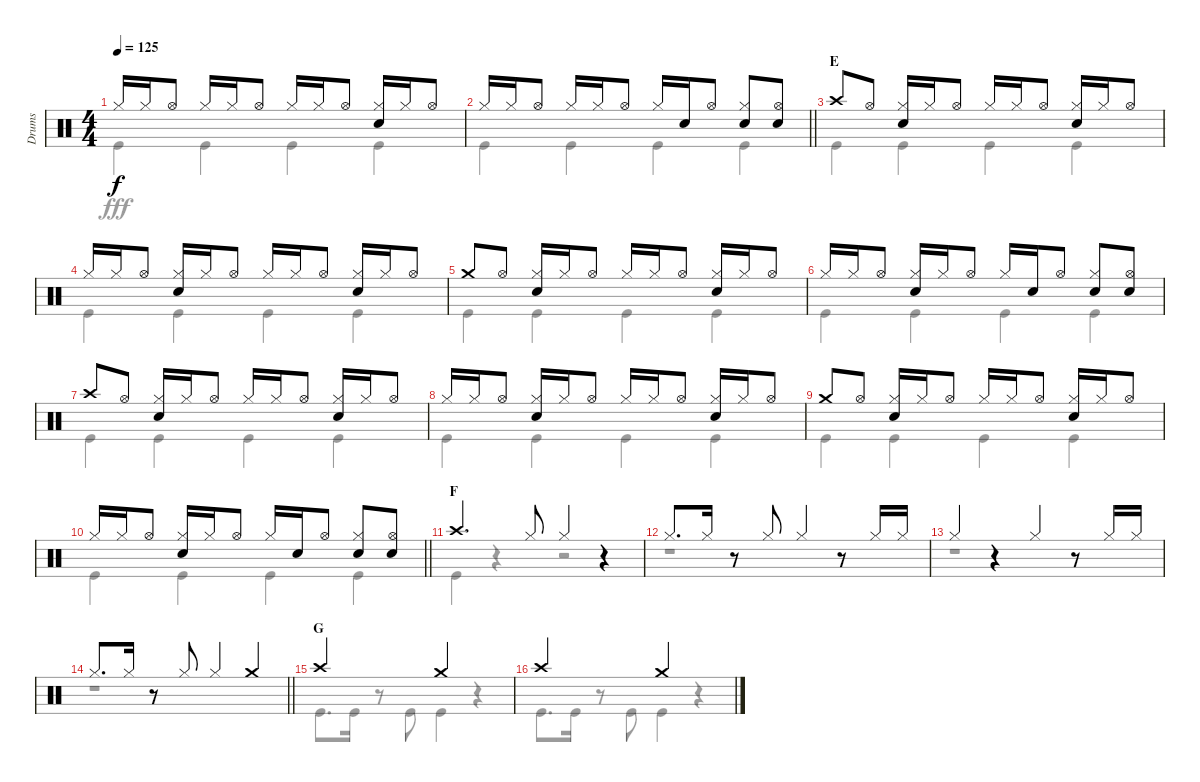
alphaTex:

\track ("Drums" "Drums") {instrument percussion}
\staff {score}
\articulation defaults
\voice
\ts (4 4)
\tempo 125
\clef neutral
\ks c "Hi-Hat (closed)".16{dy f} "Hi-Hat (closed)".16 "Hi-Hat (open)".8 "Hi-Hat (closed)".16 "Hi-Hat (closed)".16 "Hi-Hat (open)".8 "Hi-Hat (closed)".16 "Hi-Hat (closed)".16 "Hi-Hat (open)".8
("Hi-Hat (closed)" "Snare (hit) 2").16 "Hi-Hat (closed)".16 "Hi-Hat (open)".8 |
\barLineRight lightlight "Hi-Hat (closed)".16 "Hi-Hat (closed)".16 "Hi-Hat (open)".8 "Hi-Hat (closed)".16 "Hi-Hat (closed)".16 "Hi-Hat (open)".8 "Hi-Hat (closed)".16 "Snare (hit) 2".16 "Hi-Hat (open)".8
("Hi-Hat (closed)" "Snare (hit) 2").8 ("Hi-Hat (open)" "Snare (hit) 2").8 |
\section ("" "E")
"Crash high (hit)".8 "Hi-Hat (open)".8 ("Hi-Hat (closed)" "Snare (hit) 2").16 "Hi-Hat (closed)".16 "Hi-Hat (open)".8 "Hi-Hat (closed)".16 "Hi-Hat (closed)".16 "Hi-Hat (open)".8 ("Hi-Hat (closed)" "Snare (hit) 2").16 "Hi-Hat (closed)".16 "Hi-Hat (open)".8 |
"Hi-Hat (closed)".16 "Hi-Hat (closed)".16 "Hi-Hat (open)".8 ("Hi-Hat (closed)" "Snare (hit) 2").16 "Hi-Hat (closed)".16 "Hi-Hat (open)".8 "Hi-Hat (closed)".16 "Hi-Hat (closed)".16 "Hi-Hat (open)".8 ("Hi-Hat (closed)" "Snare (hit) 2").16 "Hi-Hat (closed)".16 "Hi-Hat (open)".8 |
"Crash medium (hit)".8 "Hi-Hat (open)".8 ("Hi-Hat (closed)" "Snare (hit) 2").16 "Hi-Hat (closed)".16 "Hi-Hat (open)".8 "Hi-Hat (closed)".16 "Hi-Hat (closed)".16 "Hi-Hat (open)".8 ("Hi-Hat (closed)" "Snare (hit) 2").16 "Hi-Hat (closed)".16 "Hi-Hat (open)".8 |
"Hi-Hat (closed)".16 "Hi-Hat (closed)".16 "Hi-Hat (open)".8 ("Hi-Hat (closed)" "Snare (hit) 2").16 "Hi-Hat (closed)".16 "Hi-Hat (open)".8 "Hi-Hat (closed)".16 "Snare (hit) 2".16 "Hi-Hat (open)".8 ("Hi-Hat (closed)" "Snare (hit) 2").8 ("Hi-Hat (open)" "Snare (hit) 2").8 |
"Crash high (hit)".8 "Hi-Hat (open)".8 ("Hi-Hat (closed)" "Snare (hit) 2").16 "Hi-Hat (closed)".16 "Hi-Hat (open)".8 "Hi-Hat (closed)".16 "Hi-Hat (closed)".16 "Hi-Hat (open)".8 ("Hi-Hat (closed)" "Snare (hit) 2").16 "Hi-Hat (closed)".16 "Hi-Hat (open)".8 |
"Hi-Hat (closed)".16 "Hi-Hat (closed)".16 "Hi-Hat (open)".8 ("Hi-Hat (closed)" "Snare (hit) 2").16 "Hi-Hat (closed)".16 "Hi-Hat (open)".8 "Hi-Hat (closed)".16 "Hi-Hat (closed)".16 "Hi-Hat (open)".8 ("Hi-Hat (closed)" "Snare (hit) 2").16 "Hi-Hat (closed)".16 "Hi-Hat (open)".8 |
"Crash medium (hit)".8 "Hi-Hat (open)".8 ("Hi-Hat (closed)" "Snare (hit) 2").16 "Hi-Hat (closed)".16 "Hi-Hat (open)".8 "Hi-Hat (closed)".16 "Hi-Hat (closed)".16 "Hi-Hat (open)".8 ("Hi-Hat (closed)" "Snare (hit) 2").16 "Hi-Hat (closed)".16 "Hi-Hat (open)".8 |
\barLineRight lightlight "Hi-Hat (closed)".16 "Hi-Hat (closed)".16 "Hi-Hat (open)".8
("Hi-Hat (closed)" "Snare (hit) 2").16 "Hi-Hat (closed)".16 "Hi-Hat (open)".8 "Hi-Hat (closed)".16 "Snare (hit) 2".16 "Hi-Hat (open)".8 ("Hi-Hat (closed)" "Snare (hit) 2").8 ("Hi-Hat (open)" "Snare (hit) 2").8 |
\section ("" "F")
"Crash high (hit)".4{d} "Hi-Hat (closed)".8 "Hi-Hat (closed)".4 r.4 |
"Hi-Hat (closed)".8{d} "Hi-Hat (closed)".16 r.8 "Hi-Hat (closed)".8 "Hi-Hat (closed)".4 r.8 "Hi-Hat (closed)".16 "Hi-Hat (closed)".16 |
"Hi-Hat (closed)".4 r.4 "Hi-Hat (closed)".4 r.8 "Hi-Hat (closed)".16 "Hi-Hat (closed)".16 |
\barLineRight lightlight "Hi-Hat (closed)".8{d} "Hi-Hat (closed)".16
r.8 "Hi-Hat (closed)".8 "Hi-Hat (closed)".4 "Crash medium (hit)".4 |
\section ("" "G")
"Crash high (hit)".2 "Crash medium (hit)".2 |
"Crash high (hit)".2 "Crash medium (hit)".2
\voice
\clef neutral
\ottava regular
\simile none
\ks c "Kick (hit)".4{dy fff} "Kick (hit)".4 "Kick (hit)".4 "Kick (hit)".4
|
\barLineRight lightlight "Kick (hit)".4 "Kick (hit)".4 "Kick (hit)".4 "Kick (hit)".4
|
"Kick (hit)".4 "Kick (hit)".4 "Kick (hit)".4 "Kick (hit)".4 |
"Kick (hit)".4 "Kick (hit)".4 "Kick (hit)".4 "Kick (hit)".4 |
"Kick (hit)".4 "Kick (hit)".4 "Kick (hit)".4 "Kick (hit)".4 |
"Kick (hit)".4 "Kick (hit)".4 "Kick (hit)".4 "Kick (hit)".4 |
"Kick (hit)".4 "Kick (hit)".4 "Kick (hit)".4 "Kick (hit)".4 |
"Kick (hit)".4 "Kick (hit)".4 "Kick (hit)".4 "Kick (hit)".4 |
"Kick (hit)".4 "Kick (hit)".4 "Kick (hit)".4 "Kick (hit)".4 |
\barLineRight lightlight "Kick (hit)".4 "Kick (hit)".4 "Kick (hit)".4 "Kick (hit)".4
|
"Kick (hit)".4 r.4 r.2 |
r.1 |
r.1 |
\barLineRight lightlight
r.1 |
"Kick (hit)".8{d} "Kick (hit)".16 r.8 "Kick (hit)".8 "Kick (hit)".4 r.4 |
"Kick (hit)".8{d} "Kick (hit)".16 r.8 "Kick (hit)".8 "Kick (hit)".4 r.4
